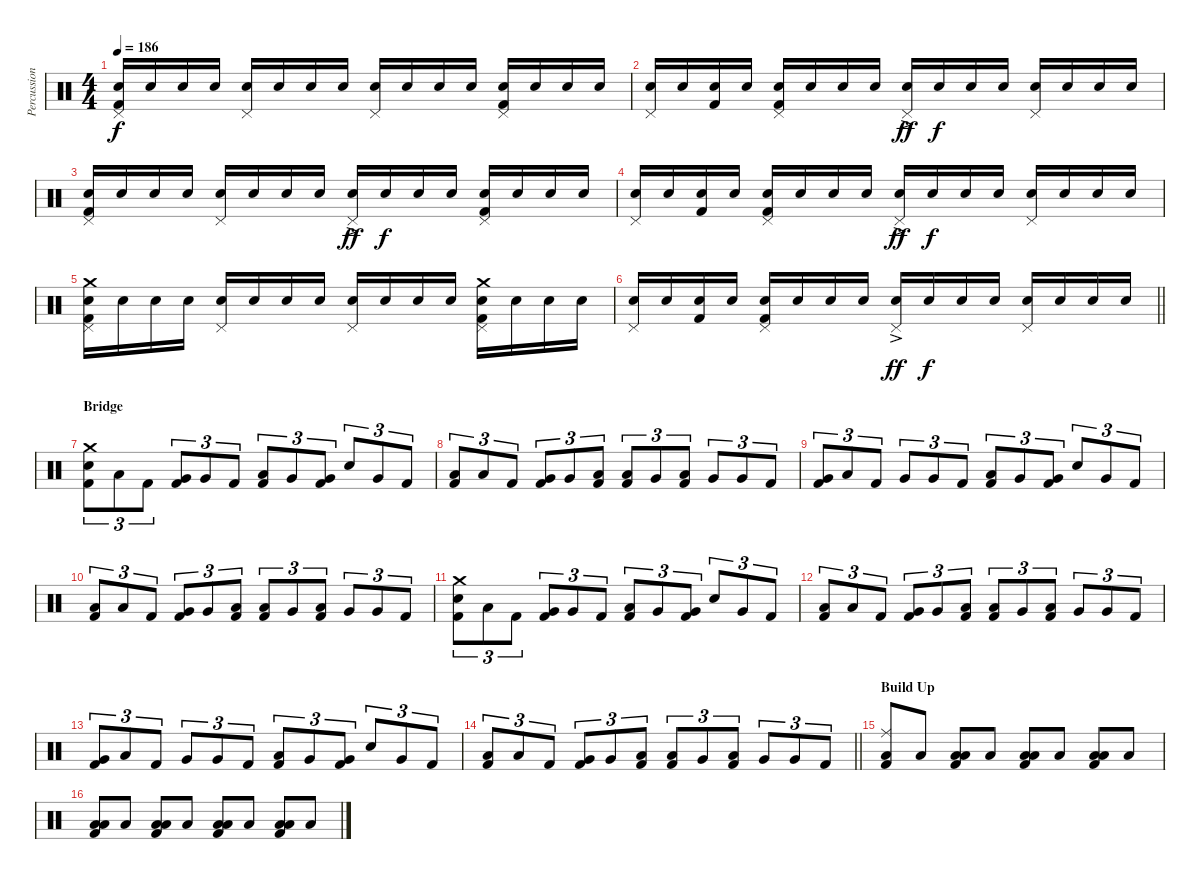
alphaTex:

\track ("Percussion" "Percussion") {instrument percussion}
\staff {score}
\articulation defaults
\ts (4 4)
\tempo 186
\clef neutral
\ks c
("Pedal Hi-Hat (hit)" "Electric Snare (hit)" "Kick (hit) 2").16{dy f} "Electric Snare (hit)".16 "Electric Snare (hit)".16 "Electric Snare (hit)".16 ("Pedal Hi-Hat (hit)" "Electric Snare (hit)").16 "Electric Snare (hit)".16 "Electric Snare (hit)".16 "Electric Snare (hit)".16 ("Pedal Hi-Hat (hit)" "Electric Snare (hit)").16 "Electric Snare (hit)".16 "Electric Snare (hit)".16 "Electric Snare (hit)".16 ("Pedal Hi-Hat (hit)" "Electric Snare (hit)" "Kick (hit) 2").16 "Electric Snare (hit)".16 "Electric Snare (hit)".16 "Electric Snare (hit)".16 |
("Pedal Hi-Hat (hit)" "Electric Snare (hit)").16 "Electric Snare (hit)".16 ("Electric Snare (hit)" "Kick (hit) 2").16 "Electric Snare (hit)".16 ("Pedal Hi-Hat (hit)" "Electric Snare (hit)" "Kick (hit) 2").16 "Electric Snare (hit)".16 "Electric Snare (hit)".16 "Electric Snare (hit)".16 ("Pedal Hi-Hat (hit)" "Electric Snare (hit)"{ac}).16{dy ff} "Electric Snare (hit)".16{dy f} "Electric Snare (hit)".16 "Electric Snare (hit)".16 ("Pedal Hi-Hat (hit)" "Electric Snare (hit)").16 "Electric Snare (hit)".16 "Electric Snare (hit)".16 "Electric Snare (hit)".16 |
("Pedal Hi-Hat (hit)" "Electric Snare (hit)" "Kick (hit) 2").16 "Electric Snare (hit)".16 "Electric Snare (hit)".16 "Electric Snare (hit)".16 ("Pedal Hi-Hat (hit)" "Electric Snare (hit)").16 "Electric Snare (hit)".16 "Electric Snare (hit)".16 "Electric Snare (hit)".16 ("Pedal Hi-Hat (hit)" "Electric Snare (hit)"{ac}).16{dy ff} "Electric Snare (hit)".16{dy f} "Electric Snare (hit)".16 "Electric Snare (hit)".16 ("Pedal Hi-Hat (hit)" "Electric Snare (hit)" "Kick (hit) 2").16 "Electric Snare (hit)".16 "Electric Snare (hit)".16 "Electric Snare (hit)".16 |
("Pedal Hi-Hat (hit)" "Electric Snare (hit)").16 "Electric Snare (hit)".16 ("Electric Snare (hit)" "Kick (hit) 2").16 "Electric Snare (hit)".16 ("Pedal Hi-Hat (hit)" "Electric Snare (hit)" "Kick (hit) 2").16 "Electric Snare (hit)".16 "Electric Snare (hit)".16 "Electric Snare (hit)".16 ("Pedal Hi-Hat (hit)" "Electric Snare (hit)"{ac}).16{dy ff} "Electric Snare (hit)".16{dy f} "Electric Snare (hit)".16 "Electric Snare (hit)".16 ("Pedal Hi-Hat (hit)" "Electric Snare (hit)").16 "Electric Snare (hit)".16 "Electric Snare (hit)".16 "Electric Snare (hit)".16 |
("Crash medium (hit)" "Pedal Hi-Hat (hit)" "Electric Snare (hit)" "Kick (hit) 2").16 "Electric Snare (hit)".16 "Electric Snare (hit)".16 "Electric Snare (hit)".16 ("Pedal Hi-Hat (hit)" "Electric Snare (hit)").16 "Electric Snare (hit)".16 "Electric Snare (hit)".16 "Electric Snare (hit)".16 ("Pedal Hi-Hat (hit)" "Electric Snare (hit)").16 "Electric Snare (hit)".16 "Electric Snare (hit)".16 "Electric Snare (hit)".16 ("Crash medium (hit)" "Pedal Hi-Hat (hit)" "Electric Snare (hit)" "Kick (hit) 2").16 "Electric Snare (hit)".16 "Electric Snare (hit)".16 "Electric Snare (hit)".16 |
\barLineRight lightlight
("Pedal Hi-Hat (hit)" "Electric Snare (hit)").16 "Electric Snare (hit)".16 ("Electric Snare (hit)" "Kick (hit) 2").16 "Electric Snare (hit)".16 ("Pedal Hi-Hat (hit)" "Electric Snare (hit)" "Kick (hit) 2").16 "Electric Snare (hit)".16 "Electric Snare (hit)".16 "Electric Snare (hit)".16 ("Pedal Hi-Hat (hit)" "Electric Snare (hit)"{ac}).16{dy ff} "Electric Snare (hit)".16{dy f} "Electric Snare (hit)".16 "Electric Snare (hit)".16 ("Pedal Hi-Hat (hit)" "Electric Snare (hit)").16 "Electric Snare (hit)".16 "Electric Snare (hit)".16 "Electric Snare (hit)".16 |
\section ("" "Bridge")
("Crash medium (hit)" "Electric Snare (hit)" "Kick (hit) 2").8{tu (3 2) volume 12} "Low Tom (hit)".8{tu (3 2)} "Kick (hit) 2".8{tu (3 2)} ("Very Low Tom (hit)" "Kick (hit) 2").8{tu (3 2)} "Very Low Tom (hit)".8{tu (3 2)} "Kick (hit) 2".8{tu (3 2)} ("Low Tom (hit)" "Kick (hit) 2").8{tu (3 2)} "Very Low Tom (hit)".8{tu (3 2)} ("Very Low Tom (hit)" "Kick (hit) 2").8{tu (3 2)} "Electric Snare (hit)".8{tu (3 2)} "Very Low Tom (hit)".8{tu (3 2)} "Kick (hit) 2".8{tu (3 2)} |
("Low Tom (hit)" "Kick (hit) 2").8{tu (3 2)} "Low Tom (hit)".8{tu (3 2)} "Kick (hit) 2".8{tu (3 2)} ("Very Low Tom (hit)" "Kick (hit) 2").8{tu (3 2)} "Very Low Tom (hit)".8{tu (3 2)} ("Low Tom (hit)" "Kick (hit) 2").8{tu (3 2)} ("Low Tom (hit)" "Kick (hit) 2").8{tu (3 2)} "Very Low Tom (hit)".8{tu (3 2)} ("Low Tom (hit)" "Kick (hit) 2").8{tu (3 2)} "Very Low Tom (hit)".8{tu (3 2)} "Very Low Tom (hit)".8{tu (3 2)} "Kick (hit) 2".8{tu (3 2)} |
("Very Low Tom (hit)" "Kick (hit) 2").8{tu (3 2)} "Low Tom (hit)".8{tu (3 2)} "Kick (hit) 2".8{tu (3 2)} "Very Low Tom (hit)".8{tu (3 2)} "Very Low Tom (hit)".8{tu (3 2)} "Kick (hit) 2".8{tu (3 2)} ("Low Tom (hit)" "Kick (hit) 2").8{tu (3 2)} "Very Low Tom (hit)".8{tu (3 2)} ("Very Low Tom (hit)" "Kick (hit) 2").8{tu (3 2)} "Electric Snare (hit)".8{tu (3 2)} "Very Low Tom (hit)".8{tu (3 2)} "Kick (hit) 2".8{tu (3 2)} |
("Low Tom (hit)" "Kick (hit) 2").8{tu (3 2)} "Low Tom (hit)".8{tu (3 2)} "Kick (hit) 2".8{tu (3 2)} ("Very Low Tom (hit)" "Kick (hit) 2").8{tu (3 2)} "Very Low Tom (hit)".8{tu (3 2)} ("Low Tom (hit)" "Kick (hit) 2").8{tu (3 2)} ("Low Tom (hit)" "Kick (hit) 2").8{tu (3 2)} "Very Low Tom (hit)".8{tu (3 2)} ("Low Tom (hit)" "Kick (hit) 2").8{tu (3 2)} "Very Low Tom (hit)".8{tu (3 2)} "Very Low Tom (hit)".8{tu (3 2)} "Kick (hit) 2".8{tu (3 2)} |
("Crash medium (hit)" "Electric Snare (hit)" "Kick (hit) 2").8{tu (3 2)} "Low Tom (hit)".8{tu (3 2)} "Kick (hit) 2".8{tu (3 2)} ("Very Low Tom (hit)" "Kick (hit) 2").8{tu (3 2)} "Very Low Tom (hit)".8{tu (3 2)} "Kick (hit) 2".8{tu (3 2)} ("Low Tom (hit)" "Kick (hit) 2").8{tu (3 2)} "Very Low Tom (hit)".8{tu (3 2)} ("Very Low Tom (hit)" "Kick (hit) 2").8{tu (3 2)} "Electric Snare (hit)".8{tu (3 2)} "Very Low Tom (hit)".8{tu (3 2)} "Kick (hit) 2".8{tu (3 2)} |
("Low Tom (hit)" "Kick (hit) 2").8{tu (3 2)} "Low Tom (hit)".8{tu (3 2)} "Kick (hit) 2".8{tu (3 2)} ("Very Low Tom (hit)" "Kick (hit) 2").8{tu (3 2)} "Very Low Tom (hit)".8{tu (3 2)} ("Low Tom (hit)" "Kick (hit) 2").8{tu (3 2)} ("Low Tom (hit)" "Kick (hit) 2").8{tu (3 2)} "Very Low Tom (hit)".8{tu (3 2)} ("Low Tom (hit)" "Kick (hit) 2").8{tu (3 2)} "Very Low Tom (hit)".8{tu (3 2)} "Very Low Tom (hit)".8{tu (3 2)} "Kick (hit) 2".8{tu (3 2)} |
("Very Low Tom (hit)" "Kick (hit) 2").8{tu (3 2)} "Low Tom (hit)".8{tu (3 2)} "Kick (hit) 2".8{tu (3 2)} "Very Low Tom (hit)".8{tu (3 2)} "Very Low Tom (hit)".8{tu (3 2)} "Kick (hit) 2".8{tu (3 2)} ("Low Tom (hit)" "Kick (hit) 2").8{tu (3 2)} "Very Low Tom (hit)".8{tu (3 2)} ("Very Low Tom (hit)" "Kick (hit) 2").8{tu (3 2)} "Electric Snare (hit)".8{tu (3 2)} "Very Low Tom (hit)".8{tu (3 2)} "Kick (hit) 2".8{tu (3 2)} |
\barLineRight lightlight
("Low Tom (hit)" "Kick (hit) 2").8{tu (3 2)} "Low Tom (hit)".8{tu (3 2)} "Kick (hit) 2".8{tu (3 2)} ("Very Low Tom (hit)" "Kick (hit) 2").8{tu (3 2)} "Very Low Tom (hit)".8{tu (3 2)} ("Low Tom (hit)" "Kick (hit) 2").8{tu (3 2)} ("Low Tom (hit)" "Kick (hit) 2").8{tu (3 2)} "Very Low Tom (hit)".8{tu (3 2)} ("Low Tom (hit)" "Kick (hit) 2").8{tu (3 2)} "Very Low Tom (hit)".8{tu (3 2)} "Very Low Tom (hit)".8{tu (3 2)} "Kick (hit) 2".8{tu (3 2)} |
\section ("" "Build Up")
("Ride (middle)" "Low Floor Tom (hit)" "Kick (hit) 2").8 "Low Floor Tom (hit)".8 ("Low Tom (hit)" "Low Floor Tom (hit)" "Kick (hit) 2").8 "Low Floor Tom (hit)".8 ("Low Tom (hit)" "Low Floor Tom (hit)" "Kick (hit) 2").8 "Low Floor Tom (hit)".8 ("Low Tom (hit)" "Low Floor Tom (hit)" "Kick (hit) 2").8 "Low Floor Tom (hit)".8 |
("Low Tom (hit)" "Low Floor Tom (hit)" "Kick (hit) 2").8 "Low Floor Tom (hit)".8 ("Low Tom (hit)" "Low Floor Tom (hit)" "Kick (hit) 2").8 "Low Floor Tom (hit)".8 ("Low Tom (hit)" "Low Floor Tom (hit)" "Kick (hit) 2").8 "Low Floor Tom (hit)".8 ("Low Tom (hit)" "Low Floor Tom (hit)" "Kick (hit) 2").8 "Low Floor Tom (hit)".8
